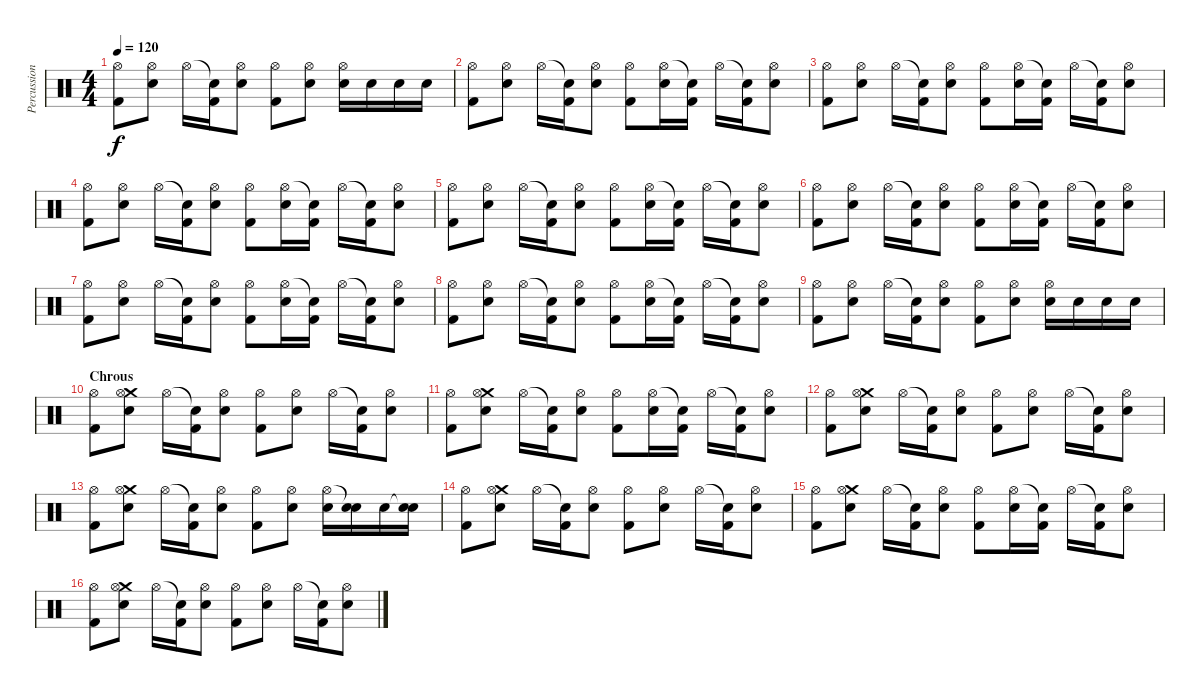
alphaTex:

\track ("Percussion" "Percussion") {instrument percussion}
\staff {score}
\articulation defaults
\ts (4 4)
\tempo 120
\clef neutral
\ks c
("Hi-Hat (open)" "Kick (hit) 2").8{dy f} ("Hi-Hat (open)" "Electric Snare (hit)").8 "Hi-Hat (open)".16 ("Snare (hit)"{t} "Kick (hit) 2").16 ("Hi-Hat (open)" "Electric Snare (hit)").8 ("Hi-Hat (open)" "Kick (hit) 2").8 ("Hi-Hat (open)" "Electric Snare (hit)").8 ("Hi-Hat (open)" "Electric Snare (hit)").16 "Electric Snare (hit)".16 "Electric Snare (hit)".16 "Electric Snare (hit)".16 |
("Hi-Hat (open)" "Kick (hit) 2").8 ("Hi-Hat (open)" "Electric Snare (hit)").8 "Hi-Hat (open)".16 ("Snare (hit)"{t} "Kick (hit) 2").16 ("Hi-Hat (open)" "Electric Snare (hit)").8 ("Hi-Hat (open)" "Kick (hit) 2").8 ("Hi-Hat (open)" "Electric Snare (hit)").16 ("Snare (hit)"{t} "Kick (hit) 2").16 "Hi-Hat (open)".16 ("Snare (hit)"{t} "Kick (hit) 2").16 ("Hi-Hat (open)" "Electric Snare (hit)").8 |
("Hi-Hat (open)" "Kick (hit) 2").8 ("Hi-Hat (open)" "Electric Snare (hit)").8 "Hi-Hat (open)".16 ("Snare (hit)"{t} "Kick (hit) 2").16 ("Hi-Hat (open)" "Electric Snare (hit)").8 ("Hi-Hat (open)" "Kick (hit) 2").8 ("Hi-Hat (open)" "Electric Snare (hit)").16 ("Snare (hit)"{t} "Kick (hit) 2").16 "Hi-Hat (open)".16 ("Snare (hit)"{t} "Kick (hit) 2").16 ("Hi-Hat (open)" "Electric Snare (hit)").8 |
("Hi-Hat (open)" "Kick (hit) 2").8 ("Hi-Hat (open)" "Electric Snare (hit)").8 "Hi-Hat (open)".16 ("Snare (hit)"{t} "Kick (hit) 2").16 ("Hi-Hat (open)" "Electric Snare (hit)").8 ("Hi-Hat (open)" "Kick (hit) 2").8 ("Hi-Hat (open)" "Electric Snare (hit)").16 ("Snare (hit)"{t} "Kick (hit) 2").16 "Hi-Hat (open)".16 ("Snare (hit)"{t} "Kick (hit) 2").16 ("Hi-Hat (open)" "Electric Snare (hit)").8 |
("Hi-Hat (open)" "Kick (hit) 2").8 ("Hi-Hat (open)" "Electric Snare (hit)").8 "Hi-Hat (open)".16 ("Snare (hit)"{t} "Kick (hit) 2").16 ("Hi-Hat (open)" "Electric Snare (hit)").8 ("Hi-Hat (open)" "Kick (hit) 2").8 ("Hi-Hat (open)" "Electric Snare (hit)").16 ("Snare (hit)"{t} "Kick (hit) 2").16 "Hi-Hat (open)".16 ("Snare (hit)"{t} "Kick (hit) 2").16 ("Hi-Hat (open)" "Electric Snare (hit)").8 |
("Hi-Hat (open)" "Kick (hit) 2").8 ("Hi-Hat (open)" "Electric Snare (hit)").8 "Hi-Hat (open)".16 ("Snare (hit)"{t} "Kick (hit) 2").16 ("Hi-Hat (open)" "Electric Snare (hit)").8 ("Hi-Hat (open)" "Kick (hit) 2").8 ("Hi-Hat (open)" "Electric Snare (hit)").16 ("Snare (hit)"{t} "Kick (hit) 2").16 "Hi-Hat (open)".16 ("Snare (hit)"{t} "Kick (hit) 2").16 ("Hi-Hat (open)" "Electric Snare (hit)").8 |
("Hi-Hat (open)" "Kick (hit) 2").8 ("Hi-Hat (open)" "Electric Snare (hit)").8 "Hi-Hat (open)".16 ("Snare (hit)"{t} "Kick (hit) 2").16 ("Hi-Hat (open)" "Electric Snare (hit)").8 ("Hi-Hat (open)" "Kick (hit) 2").8 ("Hi-Hat (open)" "Electric Snare (hit)").16 ("Snare (hit)"{t} "Kick (hit) 2").16 "Hi-Hat (open)".16 ("Snare (hit)"{t} "Kick (hit) 2").16 ("Hi-Hat (open)" "Electric Snare (hit)").8 |
("Hi-Hat (open)" "Kick (hit) 2").8 ("Hi-Hat (open)" "Electric Snare (hit)").8 "Hi-Hat (open)".16 ("Snare (hit)"{t} "Kick (hit) 2").16 ("Hi-Hat (open)" "Electric Snare (hit)").8 ("Hi-Hat (open)" "Kick (hit) 2").8 ("Hi-Hat (open)" "Electric Snare (hit)").16 ("Snare (hit)"{t} "Kick (hit) 2").16 "Hi-Hat (open)".16 ("Snare (hit)"{t} "Kick (hit) 2").16 ("Hi-Hat (open)" "Electric Snare (hit)").8 |
("Hi-Hat (open)" "Kick (hit) 2").8 ("Hi-Hat (open)" "Electric Snare (hit)").8 "Hi-Hat (open)".16 ("Snare (hit)"{t} "Kick (hit) 2").16 ("Hi-Hat (open)" "Electric Snare (hit)").8 ("Hi-Hat (open)" "Kick (hit) 2").8 ("Hi-Hat (open)" "Electric Snare (hit)").8 ("Hi-Hat (open)" "Electric Snare (hit)").16 "Electric Snare (hit)".16 "Electric Snare (hit)".16 "Electric Snare (hit)".16 |
\section ("" "Chrous")
("Hi-Hat (open)" "Kick (hit) 2").8 ("Crash medium (hit)" "Hi-Hat (open)" "Electric Snare (hit)").8 "Hi-Hat (open)".16 ("Snare (hit)"{t} "Kick (hit) 2").16 ("Hi-Hat (open)" "Electric Snare (hit)").8 ("Hi-Hat (open)" "Kick (hit) 2").8 ("Hi-Hat (open)" "Electric Snare (hit)").8 "Hi-Hat (open)".16 ("Snare (hit)"{t} "Kick (hit) 2").16 ("Hi-Hat (open)" "Electric Snare (hit)").8 |
("Hi-Hat (open)" "Kick (hit) 2").8 ("Crash medium (hit)" "Hi-Hat (open)" "Electric Snare (hit)").8 "Hi-Hat (open)".16 ("Snare (hit)"{t} "Kick (hit) 2").16 ("Hi-Hat (open)" "Electric Snare (hit)").8 ("Hi-Hat (open)" "Kick (hit) 2").8 ("Hi-Hat (open)" "Electric Snare (hit)").16 ("Snare (hit)"{t} "Kick (hit) 2").16 "Hi-Hat (open)".16 ("Snare (hit)"{t} "Kick (hit) 2").16 ("Hi-Hat (open)" "Electric Snare (hit)").8 |
("Hi-Hat (open)" "Kick (hit) 2").8 ("Crash medium (hit)" "Hi-Hat (open)" "Electric Snare (hit)").8 "Hi-Hat (open)".16 ("Snare (hit)"{t} "Kick (hit) 2").16 ("Hi-Hat (open)" "Electric Snare (hit)").8 ("Hi-Hat (open)" "Kick (hit) 2").8 ("Hi-Hat (open)" "Electric Snare (hit)").8 "Hi-Hat (open)".16 ("Snare (hit)"{t} "Kick (hit) 2").16 ("Hi-Hat (open)" "Electric Snare (hit)").8 |
("Hi-Hat (open)" "Kick (hit) 2").8 ("Crash medium (hit)" "Hi-Hat (open)" "Electric Snare (hit)").8 "Hi-Hat (open)".16 ("Snare (hit)"{t} "Kick (hit) 2").16 ("Hi-Hat (open)" "Electric Snare (hit)").8 ("Hi-Hat (open)" "Kick (hit) 2").8 ("Hi-Hat (open)" "Electric Snare (hit)").8 ("Hi-Hat (open)" "Electric Snare (hit)").16 ("Snare (hit)"{t} "Electric Snare (hit)").16 "Electric Snare (hit)".16 ("Snare (hit)"{t} "Electric Snare (hit)").16 |
("Hi-Hat (open)" "Kick (hit) 2").8 ("Crash medium (hit)" "Hi-Hat (open)" "Electric Snare (hit)").8 "Hi-Hat (open)".16 ("Snare (hit)"{t} "Kick (hit) 2").16 ("Hi-Hat (open)" "Electric Snare (hit)").8 ("Hi-Hat (open)" "Kick (hit) 2").8 ("Hi-Hat (open)" "Electric Snare (hit)").8 "Hi-Hat (open)".16 ("Snare (hit)"{t} "Kick (hit) 2").16 ("Hi-Hat (open)" "Electric Snare (hit)").8 |
("Hi-Hat (open)" "Kick (hit) 2").8 ("Crash medium (hit)" "Hi-Hat (open)" "Electric Snare (hit)").8 "Hi-Hat (open)".16 ("Snare (hit)"{t} "Kick (hit) 2").16 ("Hi-Hat (open)" "Electric Snare (hit)").8 ("Hi-Hat (open)" "Kick (hit) 2").8 ("Hi-Hat (open)" "Electric Snare (hit)").16 ("Snare (hit)"{t} "Kick (hit) 2").16 "Hi-Hat (open)".16 ("Snare (hit)"{t} "Kick (hit) 2").16 ("Hi-Hat (open)" "Electric Snare (hit)").8 |
("Hi-Hat (open)" "Kick (hit) 2").8 ("Crash medium (hit)" "Hi-Hat (open)" "Electric Snare (hit)").8 "Hi-Hat (open)".16 ("Snare (hit)"{t} "Kick (hit) 2").16 ("Hi-Hat (open)" "Electric Snare (hit)").8 ("Hi-Hat (open)" "Kick (hit) 2").8 ("Hi-Hat (open)" "Electric Snare (hit)").8 "Hi-Hat (open)".16 ("Snare (hit)"{t} "Kick (hit) 2").16 ("Hi-Hat (open)" "Electric Snare (hit)").8
